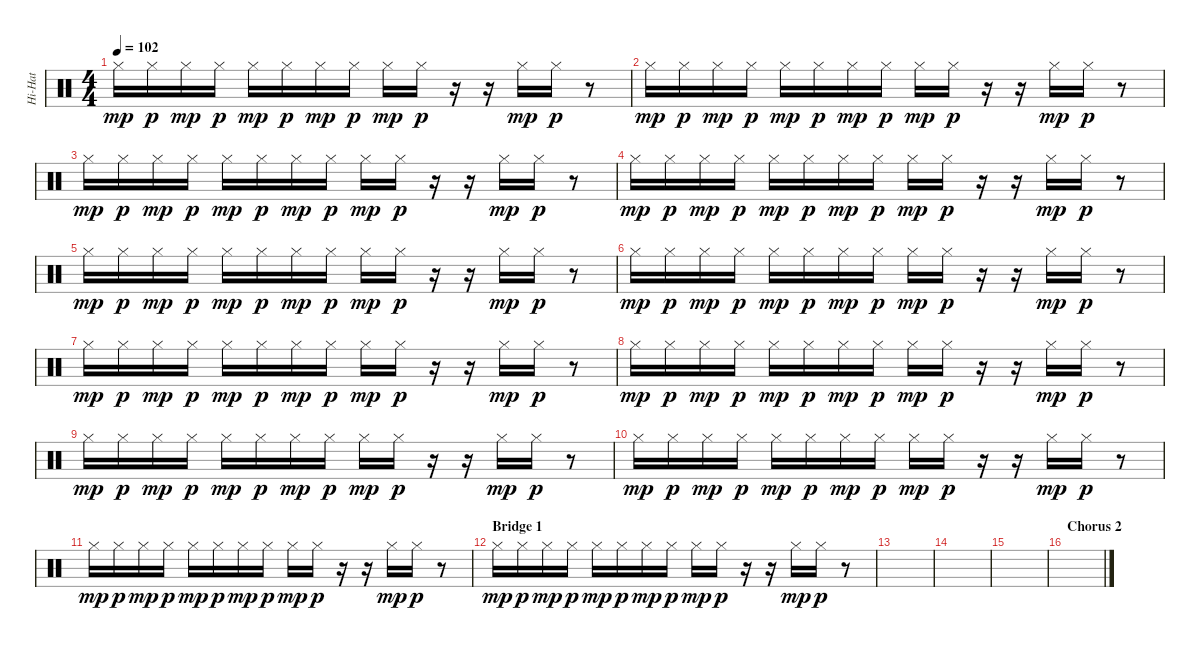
\track ("Hi-Hat" "Hi-Hat") {instrument percussion}
\staff {score}
\articulation defaults
\ts (4 4)
\tempo 102
\clef neutral
\ks c "Hi-Hat (closed)".16{dy mp} "Hi-Hat (closed)".16{dy p} "Hi-Hat (closed)".16{dy mp} "Hi-Hat (closed)".16{dy p} "Hi-Hat (closed)".16{dy mp} "Hi-Hat (closed)".16{dy p} "Hi-Hat (closed)".16{dy mp} "Hi-Hat (closed)".16{dy p} "Hi-Hat (closed)".16{dy mp} "Hi-Hat (closed)".16{dy p}
r.16 r.16 "Hi-Hat (closed)".16{dy mp} "Hi-Hat (closed)".16{dy p} r.8 |
"Hi-Hat (closed)".16{dy mp} "Hi-Hat (closed)".16{dy p} "Hi-Hat (closed)".16{dy mp} "Hi-Hat (closed)".16{dy p} "Hi-Hat (closed)".16{dy mp} "Hi-Hat (closed)".16{dy p} "Hi-Hat (closed)".16{dy mp} "Hi-Hat (closed)".16{dy p} "Hi-Hat (closed)".16{dy mp} "Hi-Hat (closed)".16{dy p} r.16 r.16 "Hi-Hat (closed)".16{dy mp} "Hi-Hat (closed)".16{dy p} r.8 |
"Hi-Hat (closed)".16{dy mp} "Hi-Hat (closed)".16{dy p} "Hi-Hat (closed)".16{dy mp} "Hi-Hat (closed)".16{dy p} "Hi-Hat (closed)".16{dy mp} "Hi-Hat (closed)".16{dy p} "Hi-Hat (closed)".16{dy mp} "Hi-Hat (closed)".16{dy p} "Hi-Hat (closed)".16{dy mp} "Hi-Hat (closed)".16{dy p} r.16 r.16 "Hi-Hat (closed)".16{dy mp} "Hi-Hat (closed)".16{dy p} r.8 |
"Hi-Hat (closed)".16{dy mp} "Hi-Hat (closed)".16{dy p} "Hi-Hat (closed)".16{dy mp} "Hi-Hat (closed)".16{dy p} "Hi-Hat (closed)".16{dy mp} "Hi-Hat (closed)".16{dy p} "Hi-Hat (closed)".16{dy mp} "Hi-Hat (closed)".16{dy p} "Hi-Hat (closed)".16{dy mp} "Hi-Hat (closed)".16{dy p} r.16 r.16 "Hi-Hat (closed)".16{dy mp} "Hi-Hat (closed)".16{dy p} r.8 |
"Hi-Hat (closed)".16{dy mp} "Hi-Hat (closed)".16{dy p} "Hi-Hat (closed)".16{dy mp} "Hi-Hat (closed)".16{dy p} "Hi-Hat (closed)".16{dy mp} "Hi-Hat (closed)".16{dy p} "Hi-Hat (closed)".16{dy mp} "Hi-Hat (closed)".16{dy p} "Hi-Hat (closed)".16{dy mp} "Hi-Hat (closed)".16{dy p} r.16 r.16 "Hi-Hat (closed)".16{dy mp} "Hi-Hat (closed)".16{dy p} r.8 |
"Hi-Hat (closed)".16{dy mp} "Hi-Hat (closed)".16{dy p} "Hi-Hat (closed)".16{dy mp} "Hi-Hat (closed)".16{dy p} "Hi-Hat (closed)".16{dy mp} "Hi-Hat (closed)".16{dy p} "Hi-Hat (closed)".16{dy mp} "Hi-Hat (closed)".16{dy p} "Hi-Hat (closed)".16{dy mp} "Hi-Hat (closed)".16{dy p} r.16 r.16 "Hi-Hat (closed)".16{dy mp} "Hi-Hat (closed)".16{dy p} r.8 |
"Hi-Hat (closed)".16{dy mp} "Hi-Hat (closed)".16{dy p} "Hi-Hat (closed)".16{dy mp} "Hi-Hat (closed)".16{dy p} "Hi-Hat (closed)".16{dy mp} "Hi-Hat (closed)".16{dy p} "Hi-Hat (closed)".16{dy mp} "Hi-Hat (closed)".16{dy p} "Hi-Hat (closed)".16{dy mp} "Hi-Hat (closed)".16{dy p} r.16 r.16 "Hi-Hat (closed)".16{dy mp} "Hi-Hat (closed)".16{dy p} r.8 |
"Hi-Hat (closed)".16{dy mp} "Hi-Hat (closed)".16{dy p} "Hi-Hat (closed)".16{dy mp} "Hi-Hat (closed)".16{dy p} "Hi-Hat (closed)".16{dy mp} "Hi-Hat (closed)".16{dy p} "Hi-Hat (closed)".16{dy mp} "Hi-Hat (closed)".16{dy p} "Hi-Hat (closed)".16{dy mp} "Hi-Hat (closed)".16{dy p} r.16 r.16 "Hi-Hat (closed)".16{dy mp} "Hi-Hat (closed)".16{dy p} r.8 |
"Hi-Hat (closed)".16{dy mp} "Hi-Hat (closed)".16{dy p} "Hi-Hat (closed)".16{dy mp} "Hi-Hat (closed)".16{dy p} "Hi-Hat (closed)".16{dy mp} "Hi-Hat (closed)".16{dy p} "Hi-Hat (closed)".16{dy mp} "Hi-Hat (closed)".16{dy p} "Hi-Hat (closed)".16{dy mp} "Hi-Hat (closed)".16{dy p} r.16 r.16 "Hi-Hat (closed)".16{dy mp} "Hi-Hat (closed)".16{dy p} r.8 |
"Hi-Hat (closed)".16{dy mp} "Hi-Hat (closed)".16{dy p} "Hi-Hat (closed)".16{dy mp} "Hi-Hat (closed)".16{dy p} "Hi-Hat (closed)".16{dy mp} "Hi-Hat (closed)".16{dy p} "Hi-Hat (closed)".16{dy mp} "Hi-Hat (closed)".16{dy p} "Hi-Hat (closed)".16{dy mp} "Hi-Hat (closed)".16{dy p} r.16 r.16 "Hi-Hat (closed)".16{dy mp} "Hi-Hat (closed)".16{dy p} r.8 |
"Hi-Hat (closed)".16{dy mp} "Hi-Hat (closed)".16{dy p} "Hi-Hat (closed)".16{dy mp} "Hi-Hat (closed)".16{dy p} "Hi-Hat (closed)".16{dy mp} "Hi-Hat (closed)".16{dy p} "Hi-Hat (closed)".16{dy mp} "Hi-Hat (closed)".16{dy p} "Hi-Hat (closed)".16{dy mp} "Hi-Hat (closed)".16{dy p} r.16 r.16 "Hi-Hat (closed)".16{dy mp} "Hi-Hat (closed)".16{dy p} r.8 |
\section ("" "Bridge 1")
"Hi-Hat (closed)".16{dy mp} "Hi-Hat (closed)".16{dy p} "Hi-Hat (closed)".16{dy mp} "Hi-Hat (closed)".16{dy p} "Hi-Hat (closed)".16{dy mp} "Hi-Hat (closed)".16{dy p} "Hi-Hat (closed)".16{dy mp} "Hi-Hat (closed)".16{dy p} "Hi-Hat (closed)".16{dy mp} "Hi-Hat (closed)".16{dy p} r.16 r.16 "Hi-Hat (closed)".16{dy mp} "Hi-Hat (closed)".16{dy p} r.8 |
|
|
|
\section ("" "Chorus 2")
